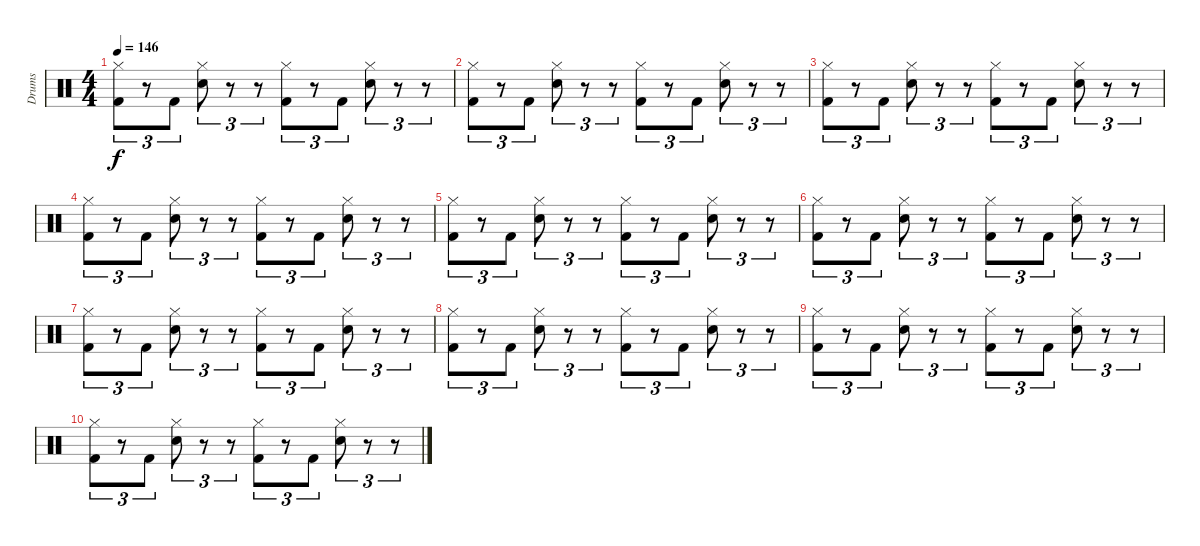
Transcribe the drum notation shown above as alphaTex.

\track ("Drums" "Drums") {instrument percussion}
\staff {score}
\articulation defaults
\ts (4 4)
\tempo 146
\clef neutral
\ks c
("Hi-Hat (closed)" "Kick (hit) 2").8{tu (3 2) dy f} r.8{tu (3 2)} "Kick (hit) 2".8{tu (3 2)} ("Hi-Hat (closed)" "Snare (hit) 2").8{tu (3 2)} r.8{tu (3 2)} r.8{tu (3 2)} ("Hi-Hat (closed)" "Kick (hit) 2").8{tu (3 2)} r.8{tu (3 2)} "Kick (hit) 2".8{tu (3 2)} ("Hi-Hat (closed)" "Snare (hit) 2").8{tu (3 2)} r.8{tu (3 2)} r.8{tu (3 2)} |
("Hi-Hat (closed)" "Kick (hit) 2").8{tu (3 2)} r.8{tu (3 2)} "Kick (hit) 2".8{tu (3 2)} ("Hi-Hat (closed)" "Snare (hit) 2").8{tu (3 2)} r.8{tu (3 2)} r.8{tu (3 2)} ("Hi-Hat (closed)" "Kick (hit) 2").8{tu (3 2)} r.8{tu (3 2)} "Kick (hit) 2".8{tu (3 2)} ("Hi-Hat (closed)" "Snare (hit) 2").8{tu (3 2)} r.8{tu (3 2)} r.8{tu (3 2)} |
("Hi-Hat (closed)" "Kick (hit) 2").8{tu (3 2)} r.8{tu (3 2)} "Kick (hit) 2".8{tu (3 2)} ("Hi-Hat (closed)" "Snare (hit) 2").8{tu (3 2)} r.8{tu (3 2)} r.8{tu (3 2)} ("Hi-Hat (closed)" "Kick (hit) 2").8{tu (3 2)} r.8{tu (3 2)} "Kick (hit) 2".8{tu (3 2)} ("Hi-Hat (closed)" "Snare (hit) 2").8{tu (3 2)} r.8{tu (3 2)} r.8{tu (3 2)} |
("Hi-Hat (closed)" "Kick (hit) 2").8{tu (3 2)} r.8{tu (3 2)} "Kick (hit) 2".8{tu (3 2)} ("Hi-Hat (closed)" "Snare (hit) 2").8{tu (3 2)} r.8{tu (3 2)} r.8{tu (3 2)} ("Hi-Hat (closed)" "Kick (hit) 2").8{tu (3 2)} r.8{tu (3 2)} "Kick (hit) 2".8{tu (3 2)} ("Hi-Hat (closed)" "Snare (hit) 2").8{tu (3 2)} r.8{tu (3 2)} r.8{tu (3 2)} |
("Hi-Hat (closed)" "Kick (hit) 2").8{tu (3 2)} r.8{tu (3 2)} "Kick (hit) 2".8{tu (3 2)} ("Hi-Hat (closed)" "Snare (hit) 2").8{tu (3 2)} r.8{tu (3 2)} r.8{tu (3 2)} ("Hi-Hat (closed)" "Kick (hit) 2").8{tu (3 2)} r.8{tu (3 2)} "Kick (hit) 2".8{tu (3 2)} ("Hi-Hat (closed)" "Snare (hit) 2").8{tu (3 2)} r.8{tu (3 2)} r.8{tu (3 2)} |
("Hi-Hat (closed)" "Kick (hit) 2").8{tu (3 2)} r.8{tu (3 2)} "Kick (hit) 2".8{tu (3 2)} ("Hi-Hat (closed)" "Snare (hit) 2").8{tu (3 2)} r.8{tu (3 2)} r.8{tu (3 2)} ("Hi-Hat (closed)" "Kick (hit) 2").8{tu (3 2)} r.8{tu (3 2)} "Kick (hit) 2".8{tu (3 2)} ("Hi-Hat (closed)" "Snare (hit) 2").8{tu (3 2)} r.8{tu (3 2)} r.8{tu (3 2)} |
("Hi-Hat (closed)" "Kick (hit) 2").8{tu (3 2)} r.8{tu (3 2)} "Kick (hit) 2".8{tu (3 2)} ("Hi-Hat (closed)" "Snare (hit) 2").8{tu (3 2)} r.8{tu (3 2)} r.8{tu (3 2)} ("Hi-Hat (closed)" "Kick (hit) 2").8{tu (3 2)} r.8{tu (3 2)} "Kick (hit) 2".8{tu (3 2)} ("Hi-Hat (closed)" "Snare (hit) 2").8{tu (3 2)} r.8{tu (3 2)} r.8{tu (3 2)} |
("Hi-Hat (closed)" "Kick (hit) 2").8{tu (3 2)} r.8{tu (3 2)} "Kick (hit) 2".8{tu (3 2)} ("Hi-Hat (closed)" "Snare (hit) 2").8{tu (3 2)} r.8{tu (3 2)} r.8{tu (3 2)} ("Hi-Hat (closed)" "Kick (hit) 2").8{tu (3 2)} r.8{tu (3 2)} "Kick (hit) 2".8{tu (3 2)} ("Hi-Hat (closed)" "Snare (hit) 2").8{tu (3 2)} r.8{tu (3 2)} r.8{tu (3 2)} |
("Hi-Hat (closed)" "Kick (hit) 2").8{tu (3 2)} r.8{tu (3 2)} "Kick (hit) 2".8{tu (3 2)} ("Hi-Hat (closed)" "Snare (hit) 2").8{tu (3 2)} r.8{tu (3 2)} r.8{tu (3 2)} ("Hi-Hat (closed)" "Kick (hit) 2").8{tu (3 2)} r.8{tu (3 2)} "Kick (hit) 2".8{tu (3 2)} ("Hi-Hat (closed)" "Snare (hit) 2").8{tu (3 2)} r.8{tu (3 2)} r.8{tu (3 2)} |
("Hi-Hat (closed)" "Kick (hit) 2").8{tu (3 2)} r.8{tu (3 2)} "Kick (hit) 2".8{tu (3 2)} ("Hi-Hat (closed)" "Snare (hit) 2").8{tu (3 2)} r.8{tu (3 2)} r.8{tu (3 2)} ("Hi-Hat (closed)" "Kick (hit) 2").8{tu (3 2)} r.8{tu (3 2)} "Kick (hit) 2".8{tu (3 2)} ("Hi-Hat (closed)" "Snare (hit) 2").8{tu (3 2)} r.8{tu (3 2)} r.8{tu (3 2)}
